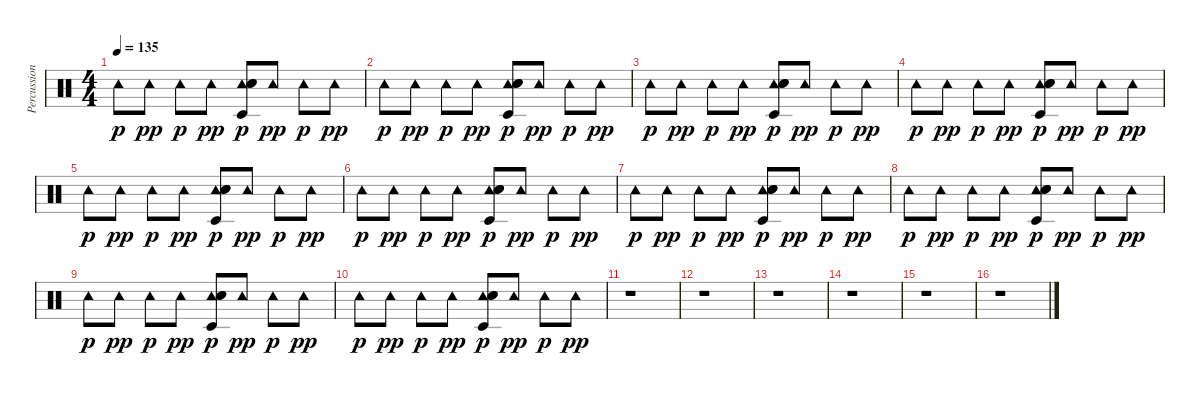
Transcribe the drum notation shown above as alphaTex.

\track ("Percussion" "Percussion") {instrument percussion}
\staff {score}
\articulation defaults
\ts (4 4)
\tempo 135
\clef neutral
\ks c "Tambourine (hit)".8{dy p} "Tambourine (hit)".8{dy pp} "Tambourine (hit)".8{dy p} "Tambourine (hit)".8{dy pp}
("Tambourine (hit)" "Hand Clap (hit)" "Snare (hit) 2" "Timbale low (hit)").8{dy p} "Tambourine (hit)".8{dy pp} "Tambourine (hit)".8{dy p} "Tambourine (hit)".8{dy pp} |
"Tambourine (hit)".8{dy p} "Tambourine (hit)".8{dy pp} "Tambourine (hit)".8{dy p} "Tambourine (hit)".8{dy pp} ("Tambourine (hit)" "Hand Clap (hit)" "Snare (hit) 2" "Timbale low (hit)").8{dy p} "Tambourine (hit)".8{dy pp} "Tambourine (hit)".8{dy p} "Tambourine (hit)".8{dy pp} |
"Tambourine (hit)".8{dy p} "Tambourine (hit)".8{dy pp} "Tambourine (hit)".8{dy p} "Tambourine (hit)".8{dy pp} ("Tambourine (hit)" "Hand Clap (hit)" "Snare (hit) 2" "Timbale low (hit)").8{dy p} "Tambourine (hit)".8{dy pp} "Tambourine (hit)".8{dy p} "Tambourine (hit)".8{dy pp} |
"Tambourine (hit)".8{dy p} "Tambourine (hit)".8{dy pp} "Tambourine (hit)".8{dy p} "Tambourine (hit)".8{dy pp} ("Tambourine (hit)" "Hand Clap (hit)" "Snare (hit) 2" "Timbale low (hit)").8{dy p} "Tambourine (hit)".8{dy pp} "Tambourine (hit)".8{dy p} "Tambourine (hit)".8{dy pp} |
"Tambourine (hit)".8{dy p} "Tambourine (hit)".8{dy pp} "Tambourine (hit)".8{dy p} "Tambourine (hit)".8{dy pp} ("Tambourine (hit)" "Hand Clap (hit)" "Snare (hit) 2" "Timbale low (hit)").8{dy p} "Tambourine (hit)".8{dy pp} "Tambourine (hit)".8{dy p} "Tambourine (hit)".8{dy pp} |
"Tambourine (hit)".8{dy p} "Tambourine (hit)".8{dy pp} "Tambourine (hit)".8{dy p} "Tambourine (hit)".8{dy pp} ("Tambourine (hit)" "Hand Clap (hit)" "Snare (hit) 2" "Timbale low (hit)").8{dy p} "Tambourine (hit)".8{dy pp} "Tambourine (hit)".8{dy p} "Tambourine (hit)".8{dy pp} |
"Tambourine (hit)".8{dy p} "Tambourine (hit)".8{dy pp} "Tambourine (hit)".8{dy p} "Tambourine (hit)".8{dy pp} ("Tambourine (hit)" "Hand Clap (hit)" "Snare (hit) 2" "Timbale low (hit)").8{dy p} "Tambourine (hit)".8{dy pp} "Tambourine (hit)".8{dy p} "Tambourine (hit)".8{dy pp} |
"Tambourine (hit)".8{dy p} "Tambourine (hit)".8{dy pp} "Tambourine (hit)".8{dy p} "Tambourine (hit)".8{dy pp} ("Tambourine (hit)" "Hand Clap (hit)" "Snare (hit) 2" "Timbale low (hit)").8{dy p} "Tambourine (hit)".8{dy pp} "Tambourine (hit)".8{dy p} "Tambourine (hit)".8{dy pp} |
"Tambourine (hit)".8{dy p} "Tambourine (hit)".8{dy pp} "Tambourine (hit)".8{dy p} "Tambourine (hit)".8{dy pp} ("Tambourine (hit)" "Hand Clap (hit)" "Snare (hit) 2" "Timbale low (hit)").8{dy p} "Tambourine (hit)".8{dy pp} "Tambourine (hit)".8{dy p} "Tambourine (hit)".8{dy pp} |
"Tambourine (hit)".8{dy p} "Tambourine (hit)".8{dy pp} "Tambourine (hit)".8{dy p} "Tambourine (hit)".8{dy pp} ("Tambourine (hit)" "Hand Clap (hit)" "Snare (hit) 2" "Timbale low (hit)").8{dy p} "Tambourine (hit)".8{dy pp} "Tambourine (hit)".8{dy p} "Tambourine (hit)".8{dy pp} |
r.1 |
r.1 |
r.1 |
r.1 |
r.1 |
r.1
